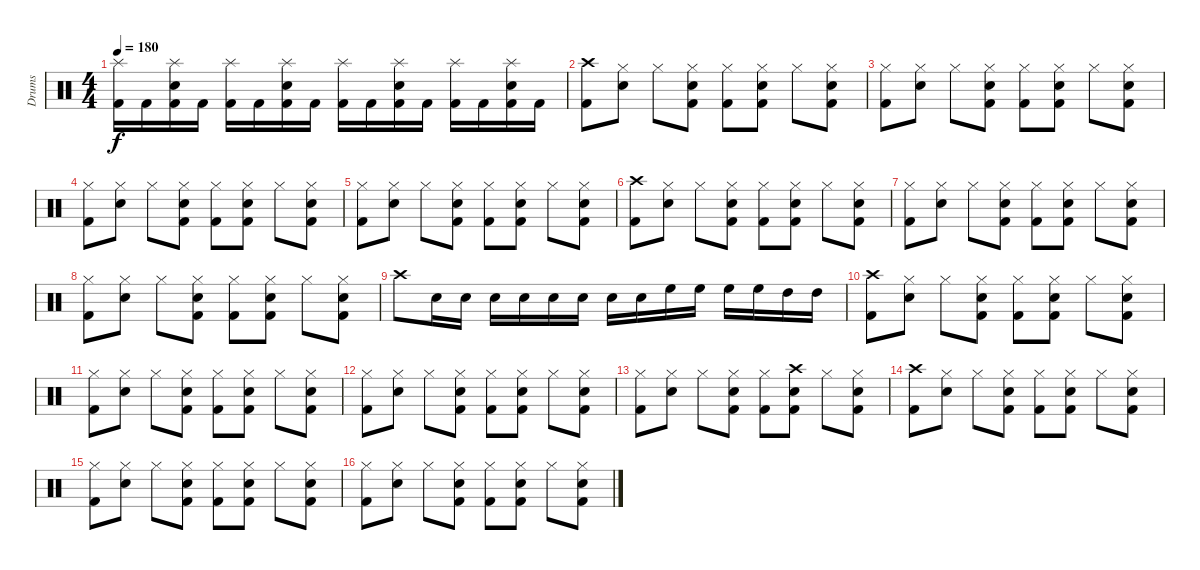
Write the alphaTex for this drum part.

\track ("Drums" "Drums") {instrument percussion}
\staff {score}
\articulation defaults
\ts (4 4)
\tempo 180
\clef neutral
\ks c
("Splash (hit)" "Kick (hit) 2").16{dy f} "Kick (hit) 2".16 ("Splash (hit)" "Snare (hit) 2" "Kick (hit) 2").16 "Kick (hit) 2".16 ("Splash (hit)" "Kick (hit) 2").16 "Kick (hit) 2".16 ("Splash (hit)" "Snare (hit) 2" "Kick (hit) 2").16 "Kick (hit) 2".16 ("Splash (hit)" "Kick (hit) 2").16 "Kick (hit) 2".16 ("Splash (hit)" "Snare (hit) 2" "Kick (hit) 2").16 "Kick (hit) 2".16 ("Splash (hit)" "Kick (hit) 2").16 "Kick (hit) 2".16 ("Splash (hit)" "Snare (hit) 2" "Kick (hit) 2").16 "Kick (hit) 2".16 |
("Crash high (hit)" "Kick (hit) 2").8 ("Hi-Hat (closed)" "Snare (hit) 2").8 "Hi-Hat (closed)".8 ("Hi-Hat (closed)" "Snare (hit) 2" "Kick (hit) 2").8 ("Hi-Hat (closed)" "Kick (hit) 2").8 ("Hi-Hat (closed)" "Snare (hit) 2" "Kick (hit) 2").8 "Hi-Hat (closed)".8 ("Hi-Hat (closed)" "Snare (hit) 2" "Kick (hit) 2").8 |
("Hi-Hat (closed)" "Kick (hit) 2").8 ("Hi-Hat (closed)" "Snare (hit) 2").8 "Hi-Hat (closed)".8 ("Hi-Hat (closed)" "Snare (hit) 2" "Kick (hit) 2").8 ("Hi-Hat (closed)" "Kick (hit) 2").8 ("Hi-Hat (closed)" "Snare (hit) 2" "Kick (hit) 2").8 "Hi-Hat (closed)".8 ("Hi-Hat (closed)" "Snare (hit) 2" "Kick (hit) 2").8 |
("Hi-Hat (closed)" "Kick (hit) 2").8 ("Hi-Hat (closed)" "Snare (hit) 2").8 "Hi-Hat (closed)".8 ("Hi-Hat (closed)" "Snare (hit) 2" "Kick (hit) 2").8 ("Hi-Hat (closed)" "Kick (hit) 2").8 ("Hi-Hat (closed)" "Snare (hit) 2" "Kick (hit) 2").8 "Hi-Hat (closed)".8 ("Hi-Hat (closed)" "Snare (hit) 2" "Kick (hit) 2").8 |
("Hi-Hat (closed)" "Kick (hit) 2").8 ("Hi-Hat (closed)" "Snare (hit) 2").8 "Hi-Hat (closed)".8 ("Hi-Hat (closed)" "Snare (hit) 2" "Kick (hit) 2").8 ("Hi-Hat (closed)" "Kick (hit) 2").8 ("Hi-Hat (closed)" "Snare (hit) 2" "Kick (hit) 2").8 "Hi-Hat (closed)".8 ("Hi-Hat (closed)" "Snare (hit) 2" "Kick (hit) 2").8 |
("Crash high (hit)" "Kick (hit) 2").8 ("Hi-Hat (closed)" "Snare (hit) 2").8 "Hi-Hat (closed)".8 ("Hi-Hat (closed)" "Snare (hit) 2" "Kick (hit) 2").8 ("Hi-Hat (closed)" "Kick (hit) 2").8 ("Hi-Hat (closed)" "Snare (hit) 2" "Kick (hit) 2").8 "Hi-Hat (closed)".8 ("Hi-Hat (closed)" "Snare (hit) 2" "Kick (hit) 2").8 |
("Hi-Hat (closed)" "Kick (hit) 2").8 ("Hi-Hat (closed)" "Snare (hit) 2").8 "Hi-Hat (closed)".8 ("Hi-Hat (closed)" "Snare (hit) 2" "Kick (hit) 2").8 ("Hi-Hat (closed)" "Kick (hit) 2").8 ("Hi-Hat (closed)" "Snare (hit) 2" "Kick (hit) 2").8 "Hi-Hat (closed)".8 ("Hi-Hat (closed)" "Snare (hit) 2" "Kick (hit) 2").8 |
("Hi-Hat (closed)" "Kick (hit) 2").8 ("Hi-Hat (closed)" "Snare (hit) 2").8 "Hi-Hat (closed)".8 ("Hi-Hat (closed)" "Snare (hit) 2" "Kick (hit) 2").8 ("Hi-Hat (closed)" "Kick (hit) 2").8 ("Hi-Hat (closed)" "Snare (hit) 2" "Kick (hit) 2").8 "Hi-Hat (closed)".8 ("Hi-Hat (closed)" "Snare (hit) 2" "Kick (hit) 2").8 |
"Crash high (hit)".8 "Snare (hit) 2".16 "Snare (hit) 2".16 "Snare (hit) 2".16 "Snare (hit) 2".16 "Snare (hit) 2".16 "Snare (hit) 2".16 "Snare (hit) 2".16 "Snare (hit) 2".16 "High Floor Tom (hit)".16 "High Floor Tom (hit)".16 "High Floor Tom (hit)".16 "High Floor Tom (hit)".16 "High Tom (hit)".16 "High Tom (hit)".16 |
("Crash high (hit)" "Kick (hit) 2").8 ("Hi-Hat (closed)" "Snare (hit) 2").8 "Hi-Hat (closed)".8 ("Hi-Hat (closed)" "Snare (hit) 2" "Kick (hit) 2").8 ("Hi-Hat (closed)" "Kick (hit) 2").8 ("Hi-Hat (closed)" "Snare (hit) 2" "Kick (hit) 2").8 "Hi-Hat (closed)".8 ("Hi-Hat (closed)" "Snare (hit) 2" "Kick (hit) 2").8 |
("Hi-Hat (closed)" "Kick (hit) 2").8 ("Hi-Hat (closed)" "Snare (hit) 2").8 "Hi-Hat (closed)".8 ("Hi-Hat (closed)" "Snare (hit) 2" "Kick (hit) 2").8 ("Hi-Hat (closed)" "Kick (hit) 2").8 ("Hi-Hat (closed)" "Snare (hit) 2" "Kick (hit) 2").8 "Hi-Hat (closed)".8 ("Hi-Hat (closed)" "Snare (hit) 2" "Kick (hit) 2").8 |
("Hi-Hat (closed)" "Kick (hit) 2").8 ("Hi-Hat (closed)" "Snare (hit) 2").8 "Hi-Hat (closed)".8 ("Hi-Hat (closed)" "Snare (hit) 2" "Kick (hit) 2").8 ("Hi-Hat (closed)" "Kick (hit) 2").8 ("Hi-Hat (closed)" "Snare (hit) 2" "Kick (hit) 2").8 "Hi-Hat (closed)".8 ("Hi-Hat (closed)" "Snare (hit) 2" "Kick (hit) 2").8 |
("Hi-Hat (closed)" "Kick (hit) 2").8 ("Hi-Hat (closed)" "Snare (hit) 2").8 "Hi-Hat (closed)".8 ("Hi-Hat (closed)" "Snare (hit) 2" "Kick (hit) 2").8 ("Hi-Hat (closed)" "Kick (hit) 2").8 ("Crash high (hit)" "Snare (hit) 2" "Kick (hit) 2").8 "Hi-Hat (closed)".8 ("Hi-Hat (closed)" "Snare (hit) 2" "Kick (hit) 2").8 |
("Crash high (hit)" "Kick (hit) 2").8 ("Hi-Hat (closed)" "Snare (hit) 2").8 "Hi-Hat (closed)".8 ("Hi-Hat (closed)" "Snare (hit) 2" "Kick (hit) 2").8 ("Hi-Hat (closed)" "Kick (hit) 2").8 ("Hi-Hat (closed)" "Snare (hit) 2" "Kick (hit) 2").8 "Hi-Hat (closed)".8 ("Hi-Hat (closed)" "Snare (hit) 2" "Kick (hit) 2").8 |
("Hi-Hat (closed)" "Kick (hit) 2").8 ("Hi-Hat (closed)" "Snare (hit) 2").8 "Hi-Hat (closed)".8 ("Hi-Hat (closed)" "Snare (hit) 2" "Kick (hit) 2").8 ("Hi-Hat (closed)" "Kick (hit) 2").8 ("Hi-Hat (closed)" "Snare (hit) 2" "Kick (hit) 2").8 "Hi-Hat (closed)".8 ("Hi-Hat (closed)" "Snare (hit) 2" "Kick (hit) 2").8 |
("Hi-Hat (closed)" "Kick (hit) 2").8 ("Hi-Hat (closed)" "Snare (hit) 2").8 "Hi-Hat (closed)".8 ("Hi-Hat (closed)" "Snare (hit) 2" "Kick (hit) 2").8 ("Hi-Hat (closed)" "Kick (hit) 2").8 ("Hi-Hat (closed)" "Snare (hit) 2" "Kick (hit) 2").8 "Hi-Hat (closed)".8 ("Hi-Hat (closed)" "Snare (hit) 2" "Kick (hit) 2").8
